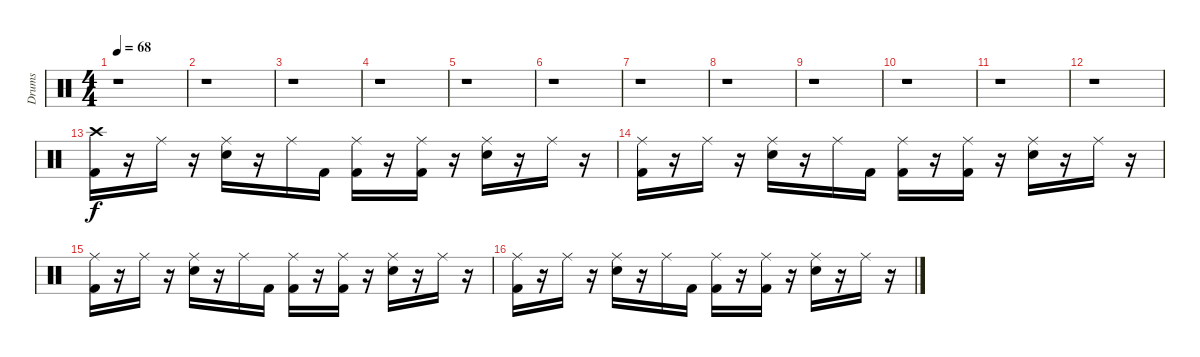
\track ("Drums" "Drums") {instrument percussion}
\staff {score}
\articulation defaults
\ts (4 4)
\tempo 68
\clef neutral
\ks c
r.1{dy f} |
r.1 |
r.1 |
r.1 |
r.1 |
r.1 |
r.1 |
r.1 |
r.1 |
r.1 |
r.1 |
r.1 |
("Crash high (hit)" "Kick (hit) 2").16 r.16 "Ride (middle)".16 r.16 ("Ride (middle)" "Snare (hit) 2").16 r.16 "Ride (middle)".16 "Kick (hit) 2".16 ("Ride (middle)" "Kick (hit) 2").16 r.16 ("Ride (middle)" "Kick (hit) 2").16 r.16 ("Ride (middle)" "Snare (hit) 2").16 r.16 "Ride (middle)".16 r.16 |
("Ride (middle)" "Kick (hit) 2").16 r.16 "Ride (middle)".16 r.16 ("Ride (middle)" "Snare (hit) 2").16 r.16 "Ride (middle)".16 "Kick (hit) 2".16 ("Ride (middle)" "Kick (hit) 2").16 r.16 ("Ride (middle)" "Kick (hit) 2").16 r.16 ("Ride (middle)" "Snare (hit) 2").16 r.16 "Ride (middle)".16 r.16 |
("Ride (middle)" "Kick (hit) 2").16 r.16 "Ride (middle)".16 r.16 ("Ride (middle)" "Snare (hit) 2").16 r.16 "Ride (middle)".16 "Kick (hit) 2".16 ("Ride (middle)" "Kick (hit) 2").16 r.16 ("Ride (middle)" "Kick (hit) 2").16 r.16 ("Ride (middle)" "Snare (hit) 2").16 r.16 "Ride (middle)".16 r.16 |
("Ride (middle)" "Kick (hit) 2").16 r.16 "Ride (middle)".16 r.16 ("Ride (middle)" "Snare (hit) 2").16 r.16 "Ride (middle)".16 "Kick (hit) 2".16 ("Ride (middle)" "Kick (hit) 2").16 r.16 ("Ride (middle)" "Kick (hit) 2").16 r.16 ("Ride (middle)" "Snare (hit) 2").16 r.16 "Ride (middle)".16 r.16
